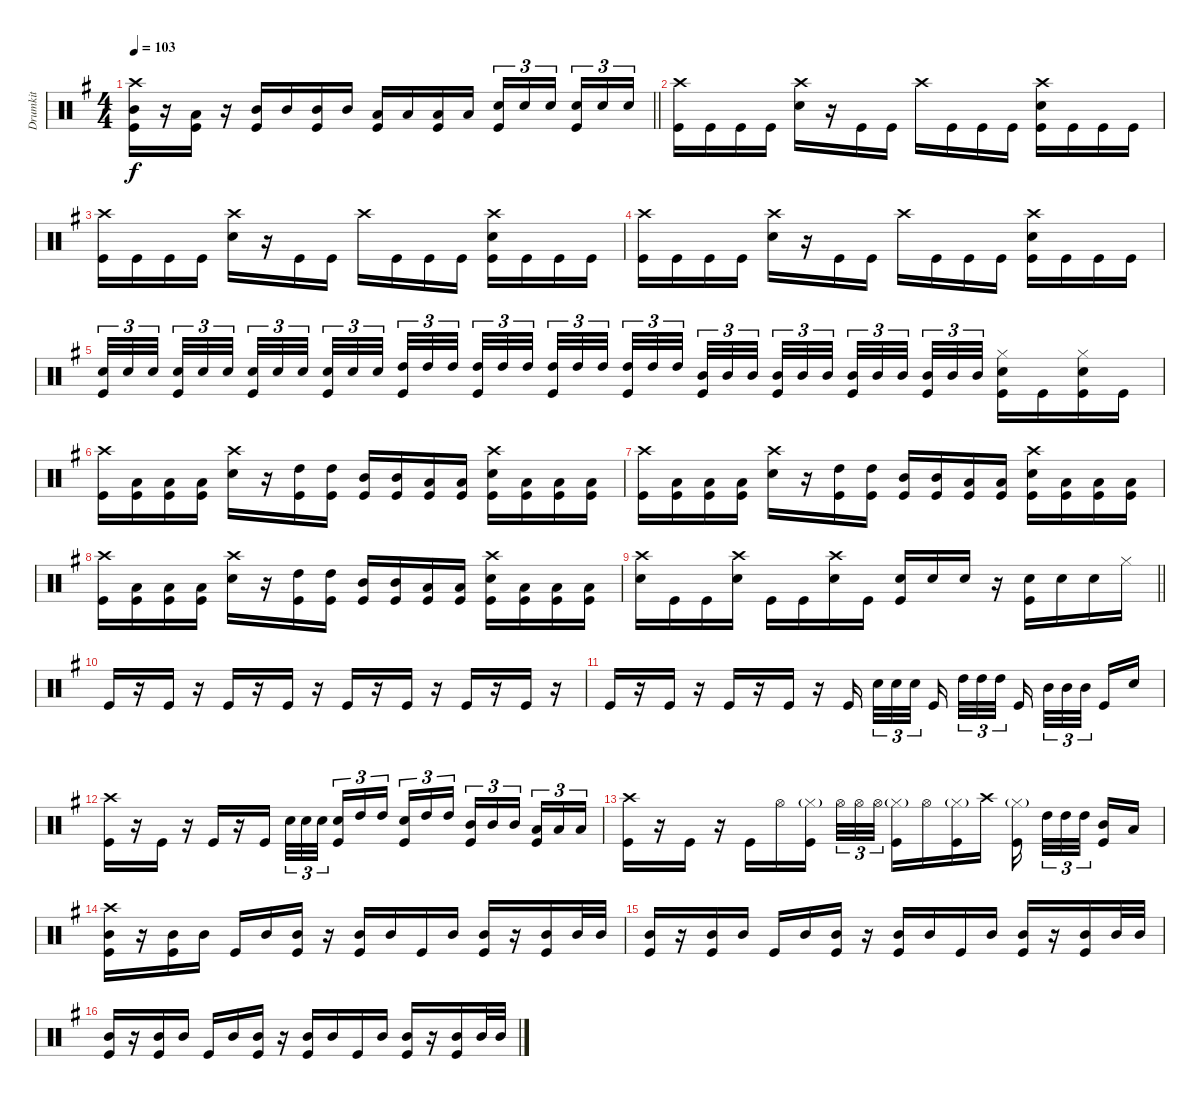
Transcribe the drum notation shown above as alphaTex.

\track ("Drumkit" "Drumkit") {instrument percussion}
\staff {score}
\articulation defaults
\ts (4 4)
\tempo 103
\clef neutral
\barLineRight lightlight
\ks eminor
("Crash high (hit)" "Mid Tom (hit)" "Kick (hit)").16{dy f} r.16 ("Low Tom (hit)" "Kick (hit)").16 r.16 ("Mid Tom (hit)" "Kick (hit)").16 "Mid Tom (hit)".16 ("Mid Tom (hit)" "Kick (hit)").16 "Mid Tom (hit)".16 ("Low Tom (hit)" "Kick (hit)").16 "Low Tom (hit)".16 ("Low Tom (hit)" "Kick (hit)").16 "Low Tom (hit)".16 ("Snare (hit) 2" "Kick (hit)").16{tu (3 2)} "Snare (hit) 2".16{tu (3 2)} "Snare (hit) 2".16{tu (3 2)} ("Snare (hit) 2" "Kick (hit)").16{tu (3 2)} "Snare (hit) 2".16{tu (3 2)} "Snare (hit) 2".16{tu (3 2)} |
("Crash high (hit)" "Kick (hit)").16 "Kick (hit)".16 "Kick (hit)".16 "Kick (hit)".16 ("Crash high (hit)" "Snare (hit) 2").16 r.16 "Kick (hit)".16 "Kick (hit)".16 "Crash high (hit)".16 "Kick (hit)".16 "Kick (hit)".16 "Kick (hit)".16 ("Crash high (hit)" "Snare (hit) 2" "Kick (hit)").16 "Kick (hit)".16 "Kick (hit)".16 "Kick (hit)".16 |
("Crash high (hit)" "Kick (hit)").16 "Kick (hit)".16 "Kick (hit)".16 "Kick (hit)".16 ("Crash high (hit)" "Snare (hit) 2").16 r.16 "Kick (hit)".16 "Kick (hit)".16 "Crash high (hit)".16 "Kick (hit)".16 "Kick (hit)".16 "Kick (hit)".16 ("Crash high (hit)" "Snare (hit) 2" "Kick (hit)").16 "Kick (hit)".16 "Kick (hit)".16 "Kick (hit)".16 |
("Crash high (hit)" "Kick (hit)").16 "Kick (hit)".16 "Kick (hit)".16 "Kick (hit)".16 ("Crash high (hit)" "Snare (hit) 2").16 r.16 "Kick (hit)".16 "Kick (hit)".16 "Crash high (hit)".16 "Kick (hit)".16 "Kick (hit)".16 "Kick (hit)".16 ("Crash high (hit)" "Snare (hit) 2" "Kick (hit)").16 "Kick (hit)".16 "Kick (hit)".16 "Kick (hit)".16 |
("Snare (hit) 2" "Kick (hit)").32{tu (3 2)} "Snare (hit) 2".32{tu (3 2)} "Snare (hit) 2".32{tu (3 2)} ("Snare (hit) 2" "Kick (hit)").32{tu (3 2)} "Snare (hit) 2".32{tu (3 2)} "Snare (hit) 2".32{tu (3 2)} ("Snare (hit) 2" "Kick (hit)").32{tu (3 2)} "Snare (hit) 2".32{tu (3 2)} "Snare (hit) 2".32{tu (3 2)} ("Snare (hit) 2" "Kick (hit)").32{tu (3 2)} "Snare (hit) 2".32{tu (3 2)} "Snare (hit) 2".32{tu (3 2)} ("High Tom (hit)" "Kick (hit)").32{tu (3 2)} "High Tom (hit)".32{tu (3 2)} "High Tom (hit)".32{tu (3 2)} ("High Tom (hit)" "Kick (hit)").32{tu (3 2)} "High Tom (hit)".32{tu (3 2)} "High Tom (hit)".32{tu (3 2)} ("High Tom (hit)" "Kick (hit)").32{tu (3 2)} "High Tom (hit)".32{tu (3 2)} "High Tom (hit)".32{tu (3 2)} ("High Tom (hit)" "Kick (hit)").32{tu (3 2)} "High Tom (hit)".32{tu (3 2)} "High Tom (hit)".32{tu (3 2)} ("Mid Tom (hit)" "Kick (hit)").32{tu (3 2)} "Mid Tom (hit)".32{tu (3 2)} "Mid Tom (hit)".32{tu (3 2)} ("Mid Tom (hit)" "Kick (hit)").32{tu (3 2)} "Mid Tom (hit)".32{tu (3 2)} "Mid Tom (hit)".32{tu (3 2)} ("Mid Tom (hit)" "Kick (hit)").32{tu (3 2)} "Mid Tom (hit)".32{tu (3 2)} "Mid Tom (hit)".32{tu (3 2)} ("Mid Tom (hit)" "Kick (hit)").32{tu (3 2)} "Mid Tom (hit)".32{tu (3 2)} "Mid Tom (hit)".32{tu (3 2)} ("Hi-Hat (closed)" "Snare (hit) 2" "Kick (hit)").16 "Kick (hit)".16 ("Hi-Hat (closed)" "Snare (hit) 2" "Kick (hit)").16 "Kick (hit)".16 |
("Crash high (hit)" "Kick (hit)").16 ("Low Tom (hit)" "Kick (hit)").16 ("Low Tom (hit)" "Kick (hit)").16 ("Low Tom (hit)" "Kick (hit)").16 ("Crash high (hit)" "Snare (hit) 2").16 r.16 ("High Tom (hit)" "Kick (hit)").16 ("High Tom (hit)" "Kick (hit)").16 ("Mid Tom (hit)" "Kick (hit)").16 ("Mid Tom (hit)" "Kick (hit)").16 ("Low Tom (hit)" "Kick (hit)").16 ("Low Tom (hit)" "Kick (hit)").16 ("Crash high (hit)" "Snare (hit) 2" "Kick (hit)").16 ("Low Tom (hit)" "Kick (hit)").16 ("Low Tom (hit)" "Kick (hit)").16 ("Low Tom (hit)" "Kick (hit)").16 |
("Crash high (hit)" "Kick (hit)").16 ("Low Tom (hit)" "Kick (hit)").16 ("Low Tom (hit)" "Kick (hit)").16 ("Low Tom (hit)" "Kick (hit)").16 ("Crash high (hit)" "Snare (hit) 2").16 r.16 ("High Tom (hit)" "Kick (hit)").16 ("High Tom (hit)" "Kick (hit)").16 ("Mid Tom (hit)" "Kick (hit)").16 ("Mid Tom (hit)" "Kick (hit)").16 ("Low Tom (hit)" "Kick (hit)").16 ("Low Tom (hit)" "Kick (hit)").16 ("Crash high (hit)" "Snare (hit) 2" "Kick (hit)").16 ("Low Tom (hit)" "Kick (hit)").16 ("Low Tom (hit)" "Kick (hit)").16 ("Low Tom (hit)" "Kick (hit)").16 |
("Crash high (hit)" "Kick (hit)").16 ("Low Tom (hit)" "Kick (hit)").16 ("Low Tom (hit)" "Kick (hit)").16 ("Low Tom (hit)" "Kick (hit)").16 ("Crash high (hit)" "Snare (hit) 2").16 r.16 ("High Tom (hit)" "Kick (hit)").16 ("High Tom (hit)" "Kick (hit)").16 ("Mid Tom (hit)" "Kick (hit)").16 ("Mid Tom (hit)" "Kick (hit)").16 ("Low Tom (hit)" "Kick (hit)").16 ("Low Tom (hit)" "Kick (hit)").16 ("Crash high (hit)" "Snare (hit) 2" "Kick (hit)").16 ("Low Tom (hit)" "Kick (hit)").16 ("Low Tom (hit)" "Kick (hit)").16 ("Low Tom (hit)" "Kick (hit)").16 |
\barLineRight lightlight
("Crash high (hit)" "Snare (hit) 2").16 "Kick (hit)".16 "Kick (hit)".16 ("Crash high (hit)" "Snare (hit) 2").16 "Kick (hit)".16 "Kick (hit)".16 ("Crash high (hit)" "Snare (hit) 2").16 "Kick (hit)".16 ("Snare (hit) 2" "Kick (hit)").16 "Snare (hit) 2".16 "Snare (hit) 2".16 r.16 ("Snare (hit) 2" "Kick (hit)").16 "Snare (hit) 2".16 "Snare (hit) 2".16 "Hi-Hat (closed)".16 |
"Kick (hit)".16 r.16 "Kick (hit)".16 r.16 "Kick (hit)".16 r.16 "Kick (hit)".16 r.16 "Kick (hit)".16 r.16 "Kick (hit)".16 r.16 "Kick (hit)".16 r.16 "Kick (hit)".16 r.16 |
"Kick (hit)".16 r.16 "Kick (hit)".16 r.16 "Kick (hit)".16 r.16 "Kick (hit)".16 r.16 "Kick (hit)".16 "Snare (hit) 2".32{tu (3 2)} "Snare (hit) 2".32{tu (3 2)} "Snare (hit) 2".32{tu (3 2)} "Kick (hit)".16 "High Tom (hit)".32{tu (3 2)} "High Tom (hit)".32{tu (3 2)} "High Tom (hit)".32{tu (3 2)} "Kick (hit)".16 "Mid Tom (hit)".32{tu (3 2)} "Mid Tom (hit)".32{tu (3 2)} "Mid Tom (hit)".32{tu (3 2)} "Kick (hit)".16 "Snare (hit) 2".16 |
("Crash high (hit)" "Kick (hit)").16 r.16 "Kick (hit)".16 r.16 "Kick (hit)".16 r.16 "Kick (hit)".16 "Snare (hit) 2".32{tu (3 2)} "Snare (hit) 2".32{tu (3 2)} "Snare (hit) 2".32{tu (3 2)} ("Snare (hit) 2" "Kick (hit)").16{tu (3 2)} "High Tom (hit)".16{tu (3 2)} "High Tom (hit)".16{tu (3 2)} ("Snare (hit) 2" "Kick (hit)").16{tu (3 2)} "High Tom (hit)".16{tu (3 2)} "High Tom (hit)".16{tu (3 2)} ("Mid Tom (hit)" "Kick (hit)").16{tu (3 2)} "Mid Tom (hit)".16{tu (3 2)} "Mid Tom (hit)".16{tu (3 2)} ("Low Tom (hit)" "Kick (hit)").16{tu (3 2)} "Low Tom (hit)".16{tu (3 2)} "Low Tom (hit)".16{tu (3 2)} |
("Crash high (hit)" "Kick (hit)").16 r.16 "Kick (hit)".16 r.16 "Kick (hit)".16 "Hi-Hat (open)".16 ("Hi-Hat (closed)"{g} "Kick (hit)").16 "Hi-Hat (open)".32{tu (3 2)} "Hi-Hat (open)".32{tu (3 2)} "Hi-Hat (open)".32{tu (3 2)} ("Hi-Hat (closed)"{g} "Kick (hit)").16 "Hi-Hat (open)".16 ("Hi-Hat (closed)"{g} "Kick (hit)").16 "Crash high (hit)".16 ("Hi-Hat (closed)"{g} "Kick (hit)").16 "High Tom (hit)".32{tu (3 2)} "High Tom (hit)".32{tu (3 2)} "High Tom (hit)".32{tu (3 2)} ("Mid Tom (hit)" "Kick (hit)").16 "Low Tom (hit)".16 |
("Crash high (hit)" "Mid Tom (hit)" "Kick (hit)").16 r.16 ("Mid Tom (hit)" "Kick (hit)").16 "Mid Tom (hit)".16 "Kick (hit)".16 "Mid Tom (hit)".16 ("Mid Tom (hit)" "Kick (hit)").16 r.16 ("Mid Tom (hit)" "Kick (hit)").16 "Mid Tom (hit)".16 "Kick (hit)".16 "Mid Tom (hit)".16 ("Mid Tom (hit)" "Kick (hit)").16 r.16 ("Mid Tom (hit)" "Kick (hit)").16 "Mid Tom (hit)".32 "Mid Tom (hit)".32 |
("Mid Tom (hit)" "Kick (hit)").16 r.16 ("Mid Tom (hit)" "Kick (hit)").16 "Mid Tom (hit)".16 "Kick (hit)".16 "Mid Tom (hit)".16 ("Mid Tom (hit)" "Kick (hit)").16 r.16 ("Mid Tom (hit)" "Kick (hit)").16 "Mid Tom (hit)".16 "Kick (hit)".16 "Mid Tom (hit)".16 ("Mid Tom (hit)" "Kick (hit)").16 r.16 ("Mid Tom (hit)" "Kick (hit)").16 "Mid Tom (hit)".32 "Mid Tom (hit)".32 |
("Mid Tom (hit)" "Kick (hit)").16 r.16 ("Mid Tom (hit)" "Kick (hit)").16 "Mid Tom (hit)".16 "Kick (hit)".16 "Mid Tom (hit)".16 ("Mid Tom (hit)" "Kick (hit)").16 r.16 ("Mid Tom (hit)" "Kick (hit)").16 "Mid Tom (hit)".16 "Kick (hit)".16 "Mid Tom (hit)".16 ("Mid Tom (hit)" "Kick (hit)").16 r.16 ("Mid Tom (hit)" "Kick (hit)").16 "Mid Tom (hit)".32 "Mid Tom (hit)".32
